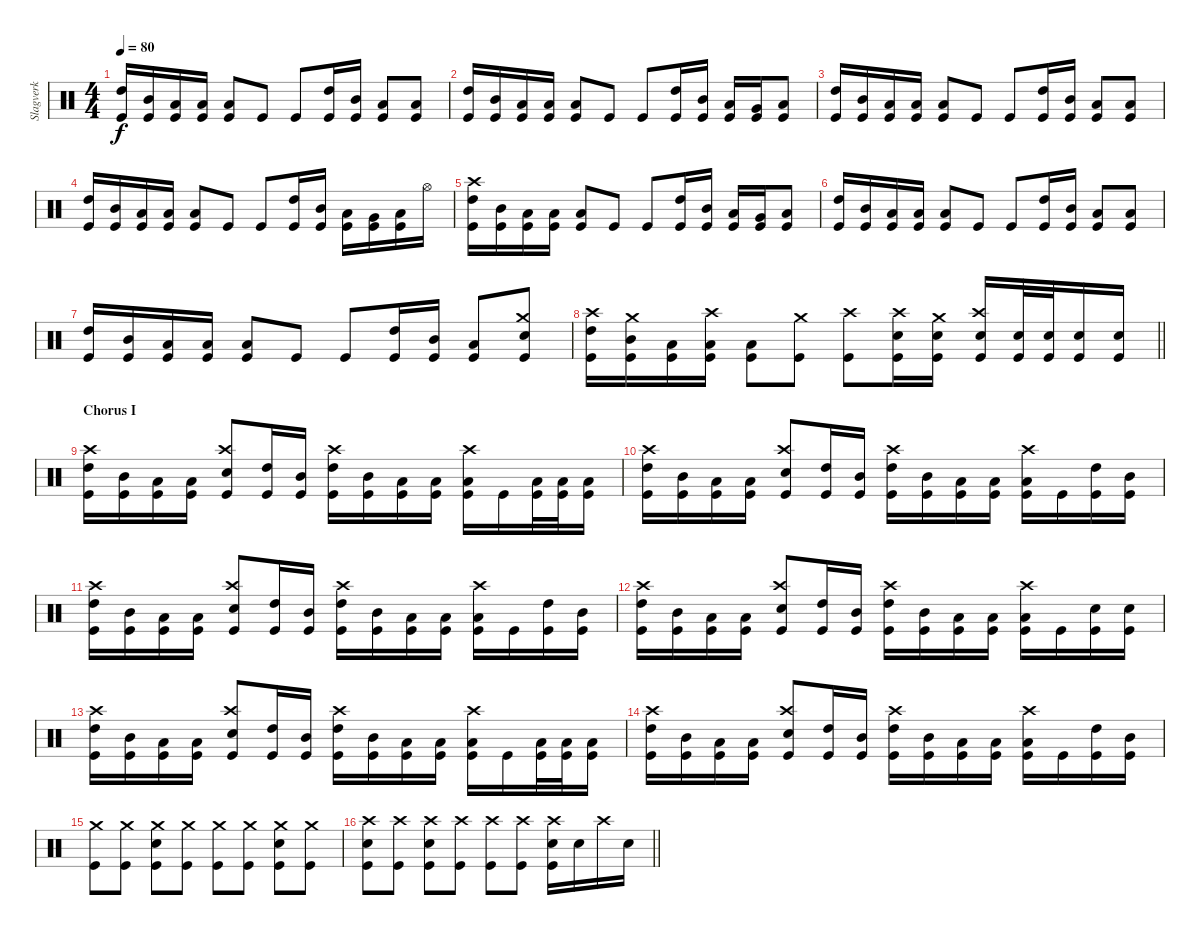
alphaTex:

\track ("Slagverk" "Slagverk") {instrument percussion}
\staff {score}
\articulation defaults
\ts (4 4)
\tempo 80
\clef neutral
\ks c
("High Tom (hit)" "Kick (hit)").16{dy f} ("Mid Tom (hit)" "Kick (hit)").16 ("Low Tom (hit)" "Kick (hit)").16 ("Low Floor Tom (hit)" "Kick (hit)").16 ("Low Tom (hit)" "Kick (hit)").8 "Kick (hit)".8 "Kick (hit)".8 ("High Tom (hit)" "Kick (hit)").16 ("Mid Tom (hit)" "Kick (hit)").16 ("Low Tom (hit)" "Kick (hit)").8 ("Low Floor Tom (hit)" "Kick (hit)").8 |
("High Tom (hit)" "Kick (hit)").16 ("Mid Tom (hit)" "Kick (hit)").16 ("Low Tom (hit)" "Kick (hit)").16 ("Low Floor Tom (hit)" "Kick (hit)").16 ("Low Tom (hit)" "Kick (hit)").8 "Kick (hit)".8 "Kick (hit)".8 ("High Tom (hit)" "Kick (hit)").16 ("Mid Tom (hit)" "Kick (hit)").16 ("Low Tom (hit)" "Kick (hit)").16 ("Very Low Tom (hit)" "Kick (hit)").16 ("Low Floor Tom (hit)" "Kick (hit)").8 |
("High Tom (hit)" "Kick (hit)").16 ("Mid Tom (hit)" "Kick (hit)").16 ("Low Tom (hit)" "Kick (hit)").16 ("Low Floor Tom (hit)" "Kick (hit)").16 ("Low Tom (hit)" "Kick (hit)").8 "Kick (hit)".8 "Kick (hit)".8 ("High Tom (hit)" "Kick (hit)").16 ("Mid Tom (hit)" "Kick (hit)").16 ("Low Tom (hit)" "Kick (hit)").8 ("Low Floor Tom (hit)" "Kick (hit)").8 |
("High Tom (hit)" "Kick (hit)").16 ("Mid Tom (hit)" "Kick (hit)").16 ("Low Tom (hit)" "Kick (hit)").16 ("Low Floor Tom (hit)" "Kick (hit)").16 ("Low Tom (hit)" "Kick (hit)").8 "Kick (hit)".8 "Kick (hit)".8 ("High Tom (hit)" "Kick (hit)").16 ("Mid Tom (hit)" "Kick (hit)").16 ("Low Tom (hit)" "Kick (hit)").16 ("Very Low Tom (hit)" "Kick (hit)").16 ("Low Floor Tom (hit)" "Kick (hit)").16 "Hi-Hat (open)".16 |
("Crash high (hit)" "High Tom (hit)" "Kick (hit)").16 ("Mid Tom (hit)" "Kick (hit)").16 ("Low Tom (hit)" "Kick (hit)").16 ("Low Floor Tom (hit)" "Kick (hit)").16 ("Low Tom (hit)" "Kick (hit)").8 "Kick (hit)".8 "Kick (hit)".8 ("High Tom (hit)" "Kick (hit)").16 ("Mid Tom (hit)" "Kick (hit)").16 ("Low Tom (hit)" "Kick (hit)").16 ("Very Low Tom (hit)" "Kick (hit)").16 ("Low Floor Tom (hit)" "Kick (hit)").8 |
("High Tom (hit)" "Kick (hit)").16 ("Mid Tom (hit)" "Kick (hit)").16 ("Low Tom (hit)" "Kick (hit)").16 ("Low Floor Tom (hit)" "Kick (hit)").16 ("Low Tom (hit)" "Kick (hit)").8 "Kick (hit)".8 "Kick (hit)".8 ("High Tom (hit)" "Kick (hit)").16 ("Mid Tom (hit)" "Kick (hit)").16 ("Low Tom (hit)" "Kick (hit)").8 ("Low Floor Tom (hit)" "Kick (hit)").8 |
("High Tom (hit)" "Kick (hit)").16 ("Mid Tom (hit)" "Kick (hit)").16 ("Low Tom (hit)" "Kick (hit)").16 ("Low Floor Tom (hit)" "Kick (hit)").16 ("Low Tom (hit)" "Kick (hit)").8 "Kick (hit)".8 "Kick (hit)".8 ("High Tom (hit)" "Kick (hit)").16 ("Mid Tom (hit)" "Kick (hit)").16 ("Low Tom (hit)" "Kick (hit)").8 ("Crash medium (hit)" "Snare (hit) 2" "Kick (hit)").8 |
\barLineRight lightlight
("Crash high (hit)" "High Tom (hit)" "Kick (hit)").16 ("Crash medium (hit)" "Mid Tom (hit)" "Kick (hit)").16 ("Low Tom (hit)" "Kick (hit)").16 ("Crash high (hit)" "Low Floor Tom (hit)" "Kick (hit)").16 ("Low Tom (hit)" "Kick (hit)").8 ("Crash medium (hit)" "Kick (hit)").8 ("Crash high (hit)" "Kick (hit)").8 ("Crash high (hit)" "Snare (hit) 2" "Kick (hit)").16 ("Crash medium (hit)" "Snare (hit) 2" "Kick (hit)").16 ("Crash high (hit)" "Snare (hit) 2" "Kick (hit)").16 ("Snare (hit) 2" "Kick (hit)").32 ("Snare (hit) 2" "Kick (hit)").32 ("Snare (hit) 2" "Kick (hit)").16 ("Snare (hit) 2" "Kick (hit)").16 |
\section ("" "Chorus I")
("Crash high (hit)" "High Tom (hit)" "Kick (hit)").16 ("Mid Tom (hit)" "Kick (hit)").16 ("Low Tom (hit)" "Kick (hit)").16 ("Low Floor Tom (hit)" "Kick (hit)").16 ("Crash high (hit)" "Snare (hit) 2" "Kick (hit)").8 ("High Tom (hit)" "Kick (hit)").16 ("Mid Tom (hit)" "Kick (hit)").16 ("Crash high (hit)" "High Tom (hit)" "Kick (hit)").16 ("Mid Tom (hit)" "Kick (hit)").16 ("Low Tom (hit)" "Kick (hit)").16 ("Low Floor Tom (hit)" "Kick (hit)").16 ("Crash high (hit)" "Low Tom (hit)" "Kick (hit)").16 "Kick (hit)".16 ("Low Tom (hit)" "Kick (hit)").32 ("Low Floor Tom (hit)" "Kick (hit)").32 ("Low Tom (hit)" "Kick (hit)").16 |
("Crash high (hit)" "High Tom (hit)" "Kick (hit)").16 ("Mid Tom (hit)" "Kick (hit)").16 ("Low Tom (hit)" "Kick (hit)").16 ("Low Floor Tom (hit)" "Kick (hit)").16 ("Crash high (hit)" "Snare (hit) 2" "Kick (hit)").8 ("High Tom (hit)" "Kick (hit)").16 ("Mid Tom (hit)" "Kick (hit)").16 ("Crash high (hit)" "High Tom (hit)" "Kick (hit)").16 ("Mid Tom (hit)" "Kick (hit)").16 ("Low Tom (hit)" "Kick (hit)").16 ("Low Floor Tom (hit)" "Kick (hit)").16 ("Crash high (hit)" "Low Tom (hit)" "Kick (hit)").16 "Kick (hit)".16 ("High Tom (hit)" "Kick (hit)").16 ("Mid Tom (hit)" "Kick (hit)").16 |
("Crash high (hit)" "High Tom (hit)" "Kick (hit)").16 ("Mid Tom (hit)" "Kick (hit)").16 ("Low Tom (hit)" "Kick (hit)").16 ("Low Floor Tom (hit)" "Kick (hit)").16 ("Crash high (hit)" "Snare (hit) 2" "Kick (hit)").8 ("High Tom (hit)" "Kick (hit)").16 ("Mid Tom (hit)" "Kick (hit)").16 ("Crash high (hit)" "High Tom (hit)" "Kick (hit)").16 ("Mid Tom (hit)" "Kick (hit)").16 ("Low Tom (hit)" "Kick (hit)").16 ("Low Floor Tom (hit)" "Kick (hit)").16 ("Crash high (hit)" "Low Tom (hit)" "Kick (hit)").16 "Kick (hit)".16 ("High Tom (hit)" "Kick (hit)").16 ("Mid Tom (hit)" "Kick (hit)").16 |
("Crash high (hit)" "High Tom (hit)" "Kick (hit)").16 ("Mid Tom (hit)" "Kick (hit)").16 ("Low Tom (hit)" "Kick (hit)").16 ("Low Floor Tom (hit)" "Kick (hit)").16 ("Crash high (hit)" "Snare (hit) 2" "Kick (hit)").8 ("High Tom (hit)" "Kick (hit)").16 ("Mid Tom (hit)" "Kick (hit)").16 ("Crash high (hit)" "High Tom (hit)" "Kick (hit)").16 ("Mid Tom (hit)" "Kick (hit)").16 ("Low Tom (hit)" "Kick (hit)").16 ("Low Floor Tom (hit)" "Kick (hit)").16 ("Crash high (hit)" "Low Tom (hit)" "Kick (hit)").16 "Kick (hit)".16 ("Snare (hit) 2" "Kick (hit)").16 ("Snare (hit) 2" "Kick (hit)").16 |
("Crash high (hit)" "High Tom (hit)" "Kick (hit)").16 ("Mid Tom (hit)" "Kick (hit)").16 ("Low Tom (hit)" "Kick (hit)").16 ("Low Floor Tom (hit)" "Kick (hit)").16 ("Crash high (hit)" "Snare (hit) 2" "Kick (hit)").8 ("High Tom (hit)" "Kick (hit)").16 ("Mid Tom (hit)" "Kick (hit)").16 ("Crash high (hit)" "High Tom (hit)" "Kick (hit)").16 ("Mid Tom (hit)" "Kick (hit)").16 ("Low Tom (hit)" "Kick (hit)").16 ("Low Floor Tom (hit)" "Kick (hit)").16 ("Crash high (hit)" "Low Tom (hit)" "Kick (hit)").16 "Kick (hit)".16 ("Low Tom (hit)" "Kick (hit)").32 ("Low Floor Tom (hit)" "Kick (hit)").32 ("Low Tom (hit)" "Kick (hit)").16 |
("Crash high (hit)" "High Tom (hit)" "Kick (hit)").16 ("Mid Tom (hit)" "Kick (hit)").16 ("Low Tom (hit)" "Kick (hit)").16 ("Low Floor Tom (hit)" "Kick (hit)").16 ("Crash high (hit)" "Snare (hit) 2" "Kick (hit)").8 ("High Tom (hit)" "Kick (hit)").16 ("Mid Tom (hit)" "Kick (hit)").16 ("Crash high (hit)" "High Tom (hit)" "Kick (hit)").16 ("Mid Tom (hit)" "Kick (hit)").16 ("Low Tom (hit)" "Kick (hit)").16 ("Low Floor Tom (hit)" "Kick (hit)").16 ("Crash high (hit)" "Low Tom (hit)" "Kick (hit)").16 "Kick (hit)".16 ("High Tom (hit)" "Kick (hit)").16 ("Mid Tom (hit)" "Kick (hit)").16 |
("Crash medium (hit)" "Kick (hit)").8 ("Crash medium (hit)" "Kick (hit)").8 ("Crash medium (hit)" "Snare (hit) 2" "Kick (hit)").8 ("Crash medium (hit)" "Kick (hit)").8 ("Crash medium (hit)" "Kick (hit)").8 ("Crash medium (hit)" "Kick (hit)").8 ("Crash medium (hit)" "Snare (hit) 2" "Kick (hit)").8 ("Crash medium (hit)" "Kick (hit)").8 |
\barLineRight lightlight
("Crash high (hit)" "Snare (hit) 2" "Kick (hit)").8 ("Crash high (hit)" "Kick (hit)").8 ("Crash high (hit)" "Snare (hit) 2" "Kick (hit)").8 ("Crash high (hit)" "Kick (hit)").8 ("Crash high (hit)" "Kick (hit)").8 ("Crash high (hit)" "Kick (hit)").8 ("Crash high (hit)" "Snare (hit) 2" "Kick (hit)").16 "Snare (hit) 2".16 "Crash high (hit)".16 "Snare (hit) 2".16
